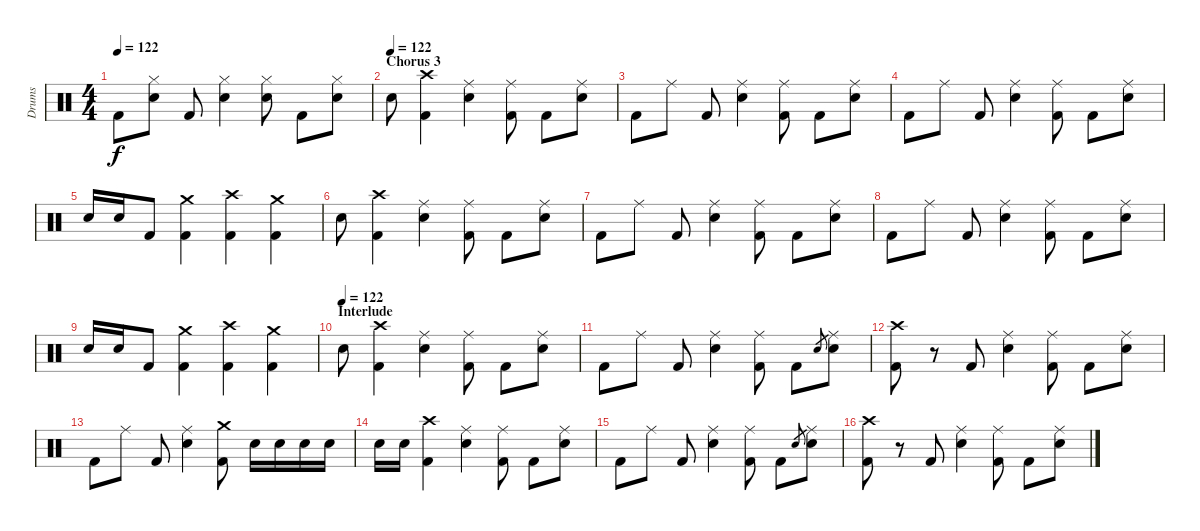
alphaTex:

\track ("Drums" "Drums") {instrument percussion}
\staff {score}
\articulation defaults
\ts (4 4)
\tempo 122
\clef neutral
\ks c "Kick (hit) 2".8{dy f}
("Hi-Hat (closed)" "Snare (hit) 2").8 "Kick (hit) 2".8 ("Hi-Hat (closed)" "Snare (hit) 2").4 ("Hi-Hat (closed)" "Snare (hit) 2").8 "Kick (hit) 2".8 ("Hi-Hat (closed)" "Snare (hit) 2").8 |
\section ("" "Chorus 3")
\tempo (122)
"Snare (hit) 2".8 ("Crash high (hit)" "Kick (hit) 2").4 ("Ride (middle)" "Snare (hit) 2").4 ("Ride (middle)" "Kick (hit) 2").8 "Kick (hit) 2".8 ("Ride (middle)" "Snare (hit) 2").8 |
"Kick (hit) 2".8 "Ride (middle)".8 "Kick (hit) 2".8 ("Ride (middle)" "Snare (hit) 2").4 ("Ride (middle)" "Kick (hit) 2").8 "Kick (hit) 2".8 ("Ride (middle)" "Snare (hit) 2").8 |
"Kick (hit) 2".8 "Ride (middle)".8 "Kick (hit) 2".8 ("Ride (middle)" "Snare (hit) 2").4 ("Ride (middle)" "Kick (hit) 2").8 "Kick (hit) 2".8 ("Ride (middle)" "Snare (hit) 2").8 |
"Snare (hit) 2".16 "Snare (hit) 2".16 "Kick (hit) 2".8 ("Crash medium (hit)" "Kick (hit) 2").4 ("Crash high (hit)" "Kick (hit) 2").4 ("Crash medium (hit)" "Kick (hit) 2").4 |
"Snare (hit) 2".8 ("Crash high (hit)" "Kick (hit) 2").4 ("Ride (middle)" "Snare (hit) 2").4 ("Ride (middle)" "Kick (hit) 2").8 "Kick (hit) 2".8 ("Ride (middle)" "Snare (hit) 2").8 |
"Kick (hit) 2".8 "Ride (middle)".8 "Kick (hit) 2".8 ("Ride (middle)" "Snare (hit) 2").4 ("Ride (middle)" "Kick (hit) 2").8 "Kick (hit) 2".8 ("Ride (middle)" "Snare (hit) 2").8 |
"Kick (hit) 2".8 "Ride (middle)".8 "Kick (hit) 2".8 ("Ride (middle)" "Snare (hit) 2").4 ("Ride (middle)" "Kick (hit) 2").8 "Kick (hit) 2".8 ("Ride (middle)" "Snare (hit) 2").8 |
"Snare (hit) 2".16 "Snare (hit) 2".16 "Kick (hit) 2".8 ("Crash medium (hit)" "Kick (hit) 2").4 ("Crash high (hit)" "Kick (hit) 2").4 ("Crash medium (hit)" "Kick (hit) 2").4 |
\section ("" "Interlude")
\tempo (122)
"Snare (hit) 2".8 ("Crash high (hit)" "Kick (hit) 2").4 ("Ride (middle)" "Snare (hit) 2").4 ("Ride (middle)" "Kick (hit) 2").8 "Kick (hit) 2".8 ("Ride (middle)" "Snare (hit) 2").8 |
"Kick (hit) 2".8 "Ride (middle)".8 "Kick (hit) 2".8 ("Ride (middle)" "Snare (hit) 2").4 ("Ride (middle)" "Kick (hit) 2").8 "Kick (hit) 2".8 "Snare (hit) 2".8{gr} ("Ride (middle)" "Snare (hit) 2").8 |
("Crash high (hit)" "Kick (hit) 2").8 r.8 "Kick (hit) 2".8 ("Ride (middle)" "Snare (hit) 2").4 ("Ride (middle)" "Kick (hit) 2").8 "Kick (hit) 2".8 ("Ride (middle)" "Snare (hit) 2").8 |
"Kick (hit) 2".8 "Ride (middle)".8 "Kick (hit) 2".8 ("Ride (middle)" "Snare (hit) 2").4 ("Crash medium (hit)" "Kick (hit) 2").8 "Snare (hit) 2".16 "Snare (hit) 2".16 "Snare (hit) 2".16 "Snare (hit) 2".16 |
"Snare (hit) 2".16 "Snare (hit) 2".16 ("Crash high (hit)" "Kick (hit) 2").4 ("Ride (middle)" "Snare (hit) 2").4 ("Ride (middle)" "Kick (hit) 2").8 "Kick (hit) 2".8 ("Ride (middle)" "Snare (hit) 2").8 |
"Kick (hit) 2".8 "Ride (middle)".8 "Kick (hit) 2".8 ("Ride (middle)" "Snare (hit) 2").4 ("Ride (middle)" "Kick (hit) 2").8 "Kick (hit) 2".8 "Snare (hit) 2".8{gr} ("Ride (middle)" "Snare (hit) 2").8 |
("Crash high (hit)" "Kick (hit) 2").8 r.8 "Kick (hit) 2".8 ("Ride (middle)" "Snare (hit) 2").4 ("Ride (middle)" "Kick (hit) 2").8 "Kick (hit) 2".8 ("Ride (middle)" "Snare (hit) 2").8
